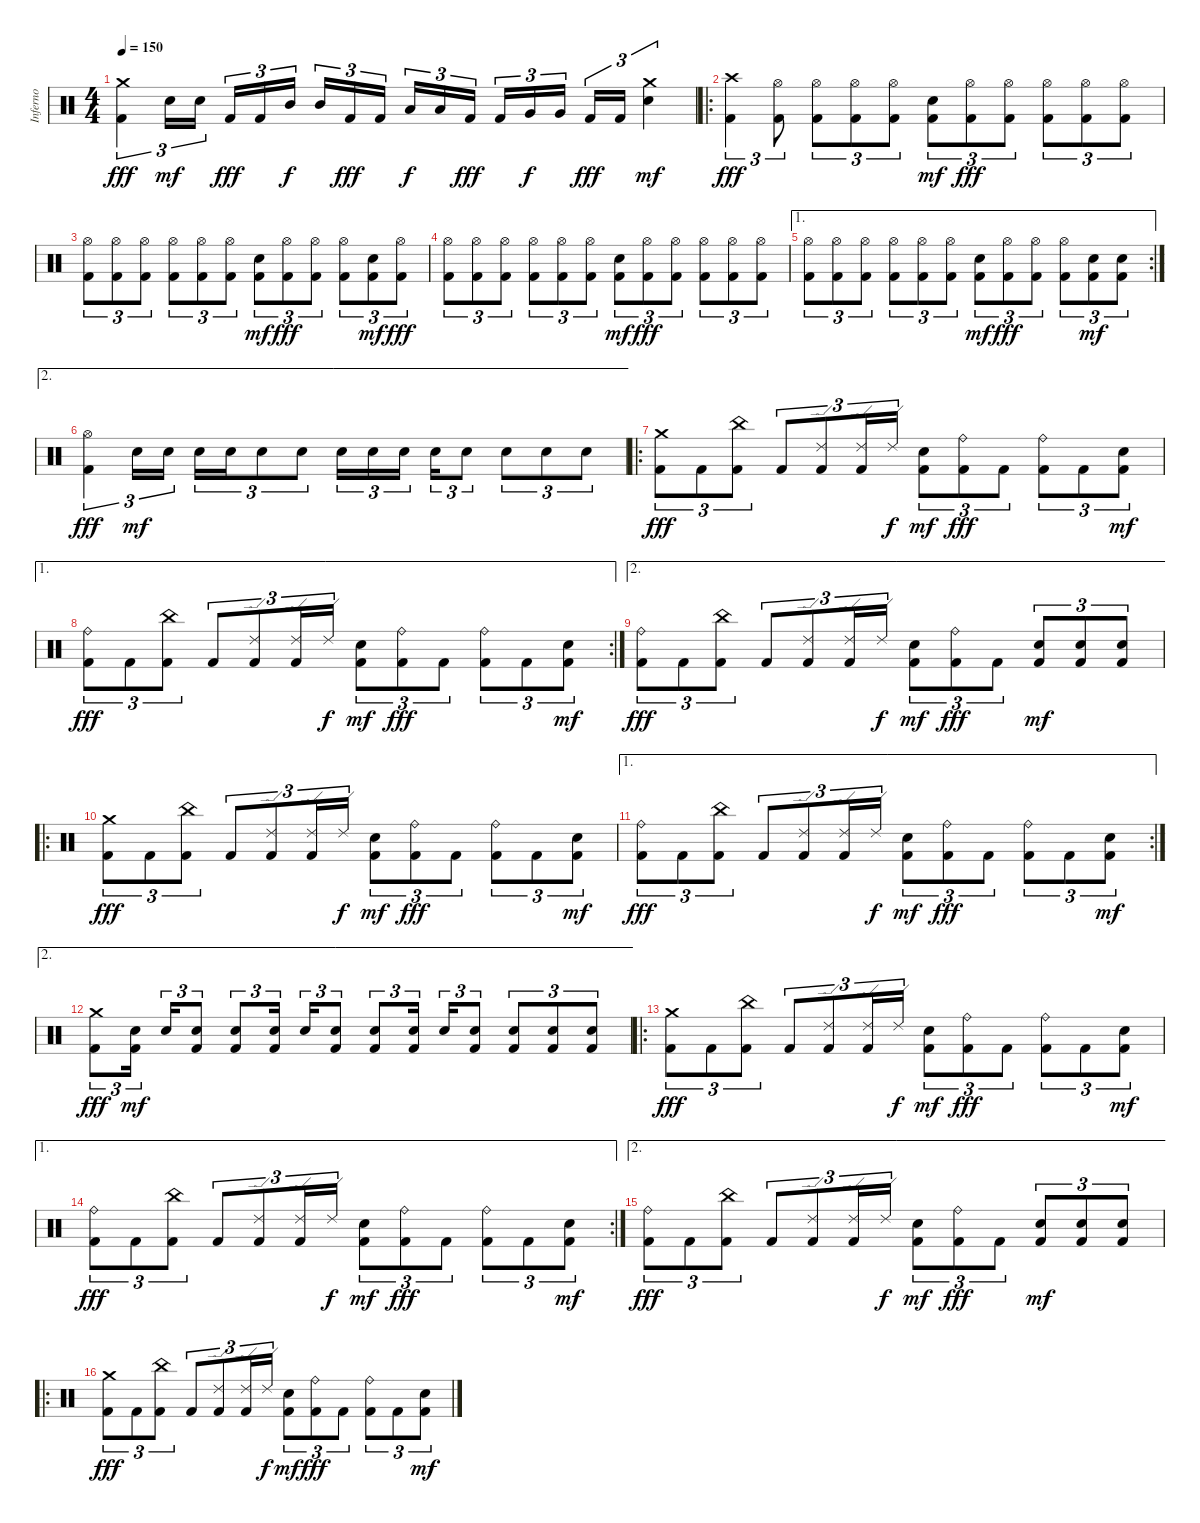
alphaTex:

\track ("Inferno" "Inferno") {instrument percussion}
\staff {score}
\articulation defaults
\ts (4 4)
\tempo 150
\clef neutral
\ks c
("Kick (hit) 2" "Crash medium (hit)").4{tu (3 2) dy fff} "Electric Snare (hit)".16{tu (3 2) dy mf} "Electric Snare (hit)".16{tu (3 2)} "Kick (hit) 2".16{tu (3 2) dy fff} "Kick (hit) 2".16{tu (3 2)} "Mid Tom (hit)".16{tu (3 2) dy f beam splitsecondary} "Mid Tom (hit)".16{tu (3 2)} "Kick (hit) 2".16{tu (3 2) dy fff} "Kick (hit) 2".16{tu (3 2)} "Low Tom (hit)".16{tu (3 2) dy f} "Low Tom (hit)".16{tu (3 2)} "Kick (hit) 2".16{tu (3 2) dy fff beam splitsecondary} "Kick (hit) 2".16{tu (3 2)} "Very Low Tom (hit)".16{tu (3 2) dy f} "Very Low Tom (hit)".16{tu (3 2)} "Kick (hit) 2".16{tu (3 2) dy fff} "Kick (hit) 2".16{tu (3 2)} ("Electric Snare (hit)" "Crash medium (hit)").4{tu (3 2) dy mf} |
\ro
("Kick (hit) 2" "Crash high (hit)").4{tu (3 2) dy fff} ("Kick (hit) 2" "Hi-Hat (open)").8{tu (3 2)} ("Kick (hit) 2" "Hi-Hat (open)").8{tu (3 2)} ("Kick (hit) 2" "Hi-Hat (open)").8{tu (3 2)} ("Kick (hit) 2" "Hi-Hat (open)").8{tu (3 2)} ("Kick (hit) 2" "Electric Snare (hit)").8{tu (3 2) dy mf} ("Kick (hit) 2" "Hi-Hat (open)").8{tu (3 2) dy fff} ("Kick (hit) 2" "Hi-Hat (open)").8{tu (3 2)} ("Kick (hit) 2" "Hi-Hat (open)").8{tu (3 2)} ("Kick (hit) 2" "Hi-Hat (open)").8{tu (3 2)} ("Kick (hit) 2" "Hi-Hat (open)").8{tu (3 2)} |
("Kick (hit) 2" "Hi-Hat (open)").8{tu (3 2)} ("Kick (hit) 2" "Hi-Hat (open)").8{tu (3 2)} ("Kick (hit) 2" "Hi-Hat (open)").8{tu (3 2)} ("Kick (hit) 2" "Hi-Hat (open)").8{tu (3 2)} ("Kick (hit) 2" "Hi-Hat (open)").8{tu (3 2)} ("Kick (hit) 2" "Hi-Hat (open)").8{tu (3 2)} ("Kick (hit) 2" "Electric Snare (hit)").8{tu (3 2) dy mf} ("Kick (hit) 2" "Hi-Hat (open)").8{tu (3 2) dy fff} ("Kick (hit) 2" "Hi-Hat (open)").8{tu (3 2)} ("Kick (hit) 2" "Hi-Hat (open)").8{tu (3 2)} ("Kick (hit) 2" "Electric Snare (hit)").8{tu (3 2) dy mf} ("Kick (hit) 2" "Hi-Hat (open)").8{tu (3 2) dy fff} |
("Kick (hit) 2" "Hi-Hat (open)").8{tu (3 2)} ("Kick (hit) 2" "Hi-Hat (open)").8{tu (3 2)} ("Kick (hit) 2" "Hi-Hat (open)").8{tu (3 2)} ("Kick (hit) 2" "Hi-Hat (open)").8{tu (3 2)} ("Kick (hit) 2" "Hi-Hat (open)").8{tu (3 2)} ("Kick (hit) 2" "Hi-Hat (open)").8{tu (3 2)} ("Kick (hit) 2" "Electric Snare (hit)").8{tu (3 2) dy mf} ("Kick (hit) 2" "Hi-Hat (open)").8{tu (3 2) dy fff} ("Kick (hit) 2" "Hi-Hat (open)").8{tu (3 2)} ("Kick (hit) 2" "Hi-Hat (open)").8{tu (3 2)} ("Kick (hit) 2" "Hi-Hat (open)").8{tu (3 2)} ("Kick (hit) 2" "Hi-Hat (open)").8{tu (3 2)} |
\ae 1
\rc 2
("Kick (hit) 2" "Hi-Hat (open)").8{tu (3 2)} ("Kick (hit) 2" "Hi-Hat (open)").8{tu (3 2)} ("Kick (hit) 2" "Hi-Hat (open)").8{tu (3 2)} ("Kick (hit) 2" "Hi-Hat (open)").8{tu (3 2)} ("Kick (hit) 2" "Hi-Hat (open)").8{tu (3 2)} ("Kick (hit) 2" "Hi-Hat (open)").8{tu (3 2)} ("Kick (hit) 2" "Electric Snare (hit)").8{tu (3 2) dy mf} ("Kick (hit) 2" "Hi-Hat (open)").8{tu (3 2) dy fff} ("Kick (hit) 2" "Hi-Hat (open)").8{tu (3 2)} ("Kick (hit) 2" "Hi-Hat (open)").8{tu (3 2)} ("Kick (hit) 2" "Electric Snare (hit)").8{tu (3 2) dy mf} ("Kick (hit) 2" "Electric Snare (hit)").8{tu (3 2)} |
\ae 2
("Kick (hit) 2" "Hi-Hat (open)").4{tu (3 2) dy fff} "Electric Snare (hit)".16{tu (3 2) dy mf} "Electric Snare (hit)".16{tu (3 2)} "Electric Snare (hit)".16{tu (3 2)} "Electric Snare (hit)".16{tu (3 2)} "Electric Snare (hit)".8{tu (3 2)} "Electric Snare (hit)".8{tu (3 2)} "Electric Snare (hit)".16{tu (3 2)} "Electric Snare (hit)".16{tu (3 2)} "Electric Snare (hit)".16{tu (3 2) beam splitsecondary} "Electric Snare (hit)".16{tu (3 2)} "Electric Snare (hit)".8{tu (3 2)} "Electric Snare (hit)".8{tu (3 2)} "Electric Snare (hit)".8{tu (3 2)} "Electric Snare (hit)".8{tu (3 2)} |
\ro
("Kick (hit) 2" "Crash medium (hit)").8{tu (3 2) dy fff} "Kick (hit) 2".8{tu (3 2)} ("Kick (hit) 2" "China (hit)").8{tu (3 2)} "Kick (hit) 2".8{tu (3 2)} ("Kick (hit) 2" "Ride (edge) 2").8{tu (3 2)} ("Kick (hit) 2" "Ride (edge) 2").16{tu (3 2)} "Ride (edge) 2".16{tu (3 2) dy f} ("Kick (hit) 2" "Electric Snare (hit)").8{tu (3 2) dy mf} ("Kick (hit) 2" "Ride (bell)").8{tu (3 2) dy fff} "Kick (hit) 2".8{tu (3 2)} ("Kick (hit) 2" "Ride (bell)").8{tu (3 2)} "Kick (hit) 2".8{tu (3 2)} ("Kick (hit) 2" "Electric Snare (hit)").8{tu (3 2) dy mf} |
\ae 1
\rc 2
("Kick (hit) 2" "Ride (bell)").8{tu (3 2) dy fff} "Kick (hit) 2".8{tu (3 2)} ("Kick (hit) 2" "China (hit)").8{tu (3 2)} "Kick (hit) 2".8{tu (3 2)} ("Kick (hit) 2" "Ride (edge) 2").8{tu (3 2)} ("Kick (hit) 2" "Ride (edge) 2").16{tu (3 2)} "Ride (edge) 2".16{tu (3 2) dy f} ("Kick (hit) 2" "Electric Snare (hit)").8{tu (3 2) dy mf} ("Kick (hit) 2" "Ride (bell)").8{tu (3 2) dy fff} "Kick (hit) 2".8{tu (3 2)} ("Kick (hit) 2" "Ride (bell)").8{tu (3 2)} "Kick (hit) 2".8{tu (3 2)} ("Kick (hit) 2" "Electric Snare (hit)").8{tu (3 2) dy mf} |
\ae 2
("Kick (hit) 2" "Ride (bell)").8{tu (3 2) dy fff} "Kick (hit) 2".8{tu (3 2)} ("Kick (hit) 2" "China (hit)").8{tu (3 2)} "Kick (hit) 2".8{tu (3 2)} ("Kick (hit) 2" "Ride (edge) 2").8{tu (3 2)} ("Kick (hit) 2" "Ride (edge) 2").16{tu (3 2)} "Ride (edge) 2".16{tu (3 2) dy f} ("Kick (hit) 2" "Electric Snare (hit)").8{tu (3 2) dy mf} ("Kick (hit) 2" "Ride (bell)").8{tu (3 2) dy fff} "Kick (hit) 2".8{tu (3 2)} ("Kick (hit) 2" "Electric Snare (hit)").8{tu (3 2) dy mf} ("Kick (hit) 2" "Electric Snare (hit)").8{tu (3 2)} ("Kick (hit) 2" "Electric Snare (hit)").8{tu (3 2)} |
\ro
("Kick (hit) 2" "Crash medium (hit)").8{tu (3 2) dy fff} "Kick (hit) 2".8{tu (3 2)} ("Kick (hit) 2" "China (hit)").8{tu (3 2)} "Kick (hit) 2".8{tu (3 2)} ("Kick (hit) 2" "Ride (edge) 2").8{tu (3 2)} ("Kick (hit) 2" "Ride (edge) 2").16{tu (3 2)} "Ride (edge) 2".16{tu (3 2) dy f} ("Kick (hit) 2" "Electric Snare (hit)").8{tu (3 2) dy mf} ("Kick (hit) 2" "Ride (bell)").8{tu (3 2) dy fff} "Kick (hit) 2".8{tu (3 2)} ("Kick (hit) 2" "Ride (bell)").8{tu (3 2)} "Kick (hit) 2".8{tu (3 2)} ("Kick (hit) 2" "Electric Snare (hit)").8{tu (3 2) dy mf} |
\ae 1
\rc 2
("Kick (hit) 2" "Ride (bell)").8{tu (3 2) dy fff} "Kick (hit) 2".8{tu (3 2)} ("Kick (hit) 2" "China (hit)").8{tu (3 2)} "Kick (hit) 2".8{tu (3 2)} ("Kick (hit) 2" "Ride (edge) 2").8{tu (3 2)} ("Kick (hit) 2" "Ride (edge) 2").16{tu (3 2)} "Ride (edge) 2".16{tu (3 2) dy f} ("Kick (hit) 2" "Electric Snare (hit)").8{tu (3 2) dy mf} ("Kick (hit) 2" "Ride (bell)").8{tu (3 2) dy fff} "Kick (hit) 2".8{tu (3 2)} ("Kick (hit) 2" "Ride (bell)").8{tu (3 2)} "Kick (hit) 2".8{tu (3 2)} ("Kick (hit) 2" "Electric Snare (hit)").8{tu (3 2) dy mf} |
\ae 2
("Kick (hit) 2" "Crash medium (hit)").8{tu (3 2) dy fff} ("Kick (hit) 2" "Electric Snare (hit)").16{tu (3 2) dy mf beam splitsecondary} "Electric Snare (hit)".16{tu (3 2)} ("Kick (hit) 2" "Electric Snare (hit)").8{tu (3 2)} ("Kick (hit) 2" "Electric Snare (hit)").8{tu (3 2)} ("Kick (hit) 2" "Electric Snare (hit)").16{tu (3 2) beam splitsecondary} "Electric Snare (hit)".16{tu (3 2)} ("Kick (hit) 2" "Electric Snare (hit)").8{tu (3 2)} ("Kick (hit) 2" "Electric Snare (hit)").8{tu (3 2)} ("Kick (hit) 2" "Electric Snare (hit)").16{tu (3 2) beam splitsecondary} "Electric Snare (hit)".16{tu (3 2)} ("Kick (hit) 2" "Electric Snare (hit)").8{tu (3 2)} ("Kick (hit) 2" "Electric Snare (hit)").8{tu (3 2)} ("Kick (hit) 2" "Electric Snare (hit)").8{tu (3 2)} ("Kick (hit) 2" "Electric Snare (hit)").8{tu (3 2)} |
\ro
("Kick (hit) 2" "Crash medium (hit)").8{tu (3 2) dy fff} "Kick (hit) 2".8{tu (3 2)} ("Kick (hit) 2" "China (hit)").8{tu (3 2)} "Kick (hit) 2".8{tu (3 2)} ("Kick (hit) 2" "Ride (edge) 2").8{tu (3 2)} ("Kick (hit) 2" "Ride (edge) 2").16{tu (3 2)} "Ride (edge) 2".16{tu (3 2) dy f} ("Kick (hit) 2" "Electric Snare (hit)").8{tu (3 2) dy mf} ("Kick (hit) 2" "Ride (bell)").8{tu (3 2) dy fff} "Kick (hit) 2".8{tu (3 2)} ("Kick (hit) 2" "Ride (bell)").8{tu (3 2)} "Kick (hit) 2".8{tu (3 2)} ("Kick (hit) 2" "Electric Snare (hit)").8{tu (3 2) dy mf} |
\ae 1
\rc 2
("Kick (hit) 2" "Ride (bell)").8{tu (3 2) dy fff} "Kick (hit) 2".8{tu (3 2)} ("Kick (hit) 2" "China (hit)").8{tu (3 2)} "Kick (hit) 2".8{tu (3 2)} ("Kick (hit) 2" "Ride (edge) 2").8{tu (3 2)} ("Kick (hit) 2" "Ride (edge) 2").16{tu (3 2)} "Ride (edge) 2".16{tu (3 2) dy f} ("Kick (hit) 2" "Electric Snare (hit)").8{tu (3 2) dy mf} ("Kick (hit) 2" "Ride (bell)").8{tu (3 2) dy fff} "Kick (hit) 2".8{tu (3 2)} ("Kick (hit) 2" "Ride (bell)").8{tu (3 2)} "Kick (hit) 2".8{tu (3 2)} ("Kick (hit) 2" "Electric Snare (hit)").8{tu (3 2) dy mf} |
\ae 2
("Kick (hit) 2" "Ride (bell)").8{tu (3 2) dy fff} "Kick (hit) 2".8{tu (3 2)} ("Kick (hit) 2" "China (hit)").8{tu (3 2)} "Kick (hit) 2".8{tu (3 2)} ("Kick (hit) 2" "Ride (edge) 2").8{tu (3 2)} ("Kick (hit) 2" "Ride (edge) 2").16{tu (3 2)} "Ride (edge) 2".16{tu (3 2) dy f} ("Kick (hit) 2" "Electric Snare (hit)").8{tu (3 2) dy mf} ("Kick (hit) 2" "Ride (bell)").8{tu (3 2) dy fff} "Kick (hit) 2".8{tu (3 2)} ("Kick (hit) 2" "Electric Snare (hit)").8{tu (3 2) dy mf} ("Kick (hit) 2" "Electric Snare (hit)").8{tu (3 2)} ("Kick (hit) 2" "Electric Snare (hit)").8{tu (3 2)} |
\ro
("Kick (hit) 2" "Crash medium (hit)").8{tu (3 2) dy fff} "Kick (hit) 2".8{tu (3 2)} ("Kick (hit) 2" "China (hit)").8{tu (3 2)} "Kick (hit) 2".8{tu (3 2)} ("Kick (hit) 2" "Ride (edge) 2").8{tu (3 2)} ("Kick (hit) 2" "Ride (edge) 2").16{tu (3 2)} "Ride (edge) 2".16{tu (3 2) dy f} ("Kick (hit) 2" "Electric Snare (hit)").8{tu (3 2) dy mf} ("Kick (hit) 2" "Ride (bell)").8{tu (3 2) dy fff} "Kick (hit) 2".8{tu (3 2)} ("Kick (hit) 2" "Ride (bell)").8{tu (3 2)} "Kick (hit) 2".8{tu (3 2)} ("Kick (hit) 2" "Electric Snare (hit)").8{tu (3 2) dy mf}
